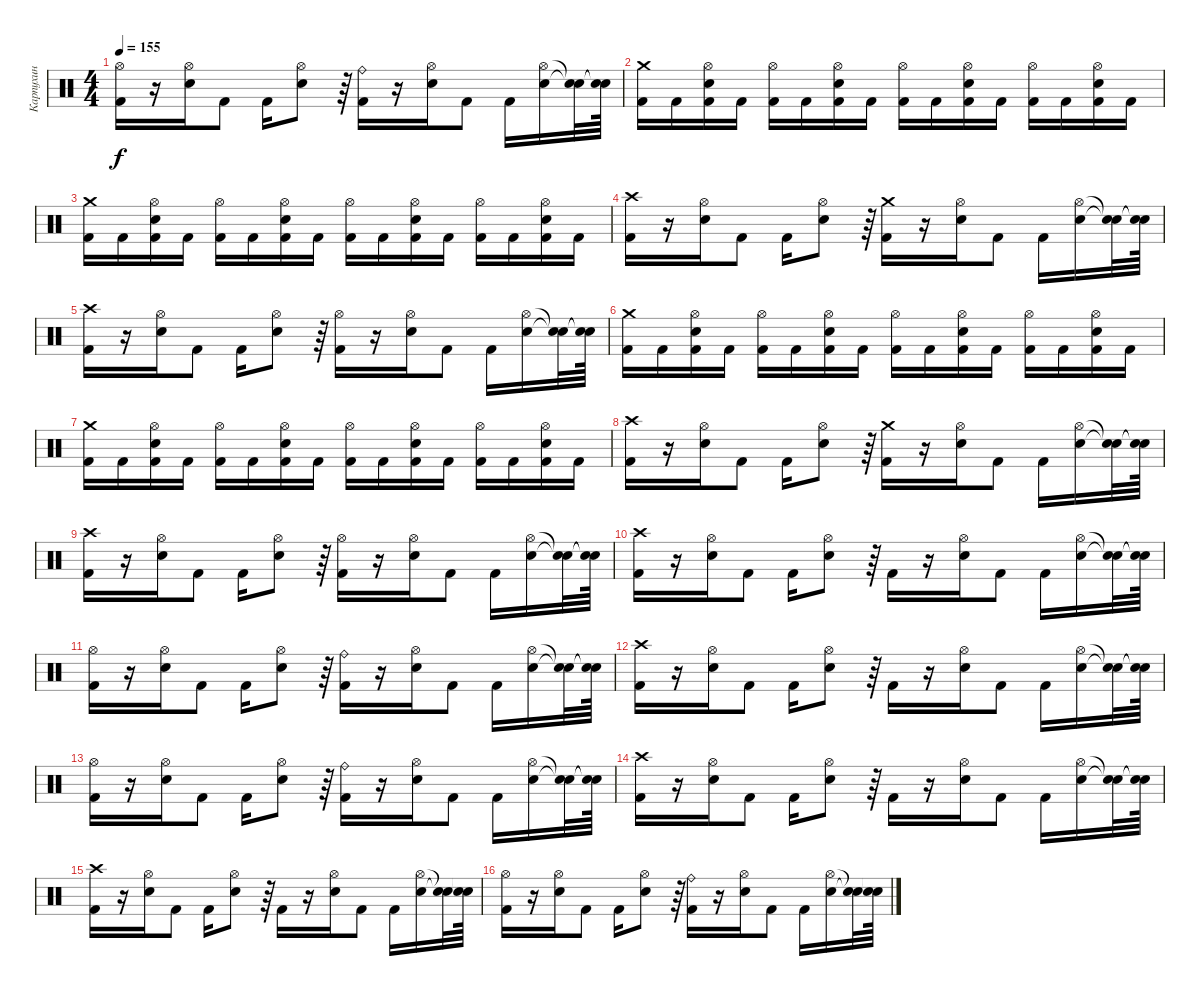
\track ("Карпухин" "Карпухин") {instrument percussion}
\staff {score}
\articulation defaults
\ts (4 4)
\tempo 155
\clef neutral
\ks c
("Kick (hit) 2" "Hi-Hat (open)").16{dy f} r.16 ("Electric Snare (hit)" "Hi-Hat (open)").16 "Kick (hit) 2".8 "Kick (hit) 2".16 ("Electric Snare (hit)" "Hi-Hat (open)").8 r.64 ("Ride (bell)" "Kick (hit) 2").16 r.16 ("Electric Snare (hit)" "Hi-Hat (open)").16 "Kick (hit) 2".8 "Kick (hit) 2".16 ("Electric Snare (hit)" "Hi-Hat (open)").16 ("Snare (hit)"{t} "Snare (hit)"{t}).32 ("Snare (hit)"{t} "Snare (hit)"{t}).64 |
("Kick (hit) 2" "Crash medium (hit)").16 "Kick (hit) 2".16 ("Kick (hit) 2" "Hi-Hat (open)" "Electric Snare (hit)").16 "Kick (hit) 2".16 ("Kick (hit) 2" "Hi-Hat (open)").16 "Kick (hit) 2".16 ("Kick (hit) 2" "Hi-Hat (open)" "Electric Snare (hit)").16 "Kick (hit) 2".16 ("Kick (hit) 2" "Hi-Hat (open)").16 "Kick (hit) 2".16 ("Kick (hit) 2" "Hi-Hat (open)" "Electric Snare (hit)").16 "Kick (hit) 2".16 ("Kick (hit) 2" "Hi-Hat (open)").16 "Kick (hit) 2".16 ("Kick (hit) 2" "Hi-Hat (open)" "Electric Snare (hit)").16 "Kick (hit) 2".16 |
("Kick (hit) 2" "Crash medium (hit)").16 "Kick (hit) 2".16 ("Kick (hit) 2" "Hi-Hat (open)" "Electric Snare (hit)").16 "Kick (hit) 2".16 ("Kick (hit) 2" "Hi-Hat (open)").16 "Kick (hit) 2".16 ("Kick (hit) 2" "Hi-Hat (open)" "Electric Snare (hit)").16 "Kick (hit) 2".16 ("Kick (hit) 2" "Hi-Hat (open)").16 "Kick (hit) 2".16 ("Kick (hit) 2" "Hi-Hat (open)" "Electric Snare (hit)").16 "Kick (hit) 2".16 ("Kick (hit) 2" "Hi-Hat (open)").16 "Kick (hit) 2".16 ("Kick (hit) 2" "Hi-Hat (open)" "Electric Snare (hit)").16 "Kick (hit) 2".16 |
("Kick (hit) 2" "Crash high (hit)").16 r.16 ("Electric Snare (hit)" "Hi-Hat (open)").16 "Kick (hit) 2".8 "Kick (hit) 2".16 ("Electric Snare (hit)" "Hi-Hat (open)").8 r.64 ("Crash medium (hit)" "Kick (hit) 2").16 r.16 ("Electric Snare (hit)" "Hi-Hat (open)").16 "Kick (hit) 2".8 "Kick (hit) 2".16 ("Electric Snare (hit)" "Hi-Hat (open)").16 ("Snare (hit)"{t} "Snare (hit)"{t}).32 ("Snare (hit)"{t} "Snare (hit)"{t}).64 |
("Kick (hit) 2" "Crash high (hit)").16 r.16 ("Electric Snare (hit)" "Hi-Hat (open)").16 "Kick (hit) 2".8 "Kick (hit) 2".16 ("Electric Snare (hit)" "Hi-Hat (open)").8 r.64 ("Hi-Hat (open)" "Kick (hit) 2").16 r.16 ("Electric Snare (hit)" "Hi-Hat (open)").16 "Kick (hit) 2".8 "Kick (hit) 2".16 ("Electric Snare (hit)" "Hi-Hat (open)").16 ("Snare (hit)"{t} "Snare (hit)"{t}).32 ("Snare (hit)"{t} "Snare (hit)"{t}).64 |
("Kick (hit) 2" "Crash medium (hit)").16 "Kick (hit) 2".16 ("Kick (hit) 2" "Hi-Hat (open)" "Electric Snare (hit)").16 "Kick (hit) 2".16 ("Kick (hit) 2" "Hi-Hat (open)").16 "Kick (hit) 2".16 ("Kick (hit) 2" "Hi-Hat (open)" "Electric Snare (hit)").16 "Kick (hit) 2".16 ("Kick (hit) 2" "Hi-Hat (open)").16 "Kick (hit) 2".16 ("Kick (hit) 2" "Hi-Hat (open)" "Electric Snare (hit)").16 "Kick (hit) 2".16 ("Kick (hit) 2" "Hi-Hat (open)").16 "Kick (hit) 2".16 ("Kick (hit) 2" "Hi-Hat (open)" "Electric Snare (hit)").16 "Kick (hit) 2".16 |
("Kick (hit) 2" "Crash medium (hit)").16 "Kick (hit) 2".16 ("Kick (hit) 2" "Hi-Hat (open)" "Electric Snare (hit)").16 "Kick (hit) 2".16 ("Kick (hit) 2" "Hi-Hat (open)").16 "Kick (hit) 2".16 ("Kick (hit) 2" "Hi-Hat (open)" "Electric Snare (hit)").16 "Kick (hit) 2".16 ("Kick (hit) 2" "Hi-Hat (open)").16 "Kick (hit) 2".16 ("Kick (hit) 2" "Hi-Hat (open)" "Electric Snare (hit)").16 "Kick (hit) 2".16 ("Kick (hit) 2" "Hi-Hat (open)").16 "Kick (hit) 2".16 ("Kick (hit) 2" "Hi-Hat (open)" "Electric Snare (hit)").16 "Kick (hit) 2".16 |
("Kick (hit) 2" "Crash high (hit)").16 r.16 ("Electric Snare (hit)" "Hi-Hat (open)").16 "Kick (hit) 2".8 "Kick (hit) 2".16 ("Electric Snare (hit)" "Hi-Hat (open)").8 r.64 ("Crash medium (hit)" "Kick (hit) 2").16 r.16 ("Electric Snare (hit)" "Hi-Hat (open)").16 "Kick (hit) 2".8 "Kick (hit) 2".16 ("Electric Snare (hit)" "Hi-Hat (open)").16 ("Snare (hit)"{t} "Snare (hit)"{t}).32 ("Snare (hit)"{t} "Snare (hit)"{t}).64 |
("Kick (hit) 2" "Crash high (hit)").16 r.16 ("Electric Snare (hit)" "Hi-Hat (open)").16 "Kick (hit) 2".8 "Kick (hit) 2".16 ("Electric Snare (hit)" "Hi-Hat (open)").8 r.64 ("Hi-Hat (open)" "Kick (hit) 2").16 r.16 ("Electric Snare (hit)" "Hi-Hat (open)").16 "Kick (hit) 2".8 "Kick (hit) 2".16 ("Electric Snare (hit)" "Hi-Hat (open)").16 ("Snare (hit)"{t} "Snare (hit)"{t}).32 ("Snare (hit)"{t} "Snare (hit)"{t}).64 |
("Kick (hit) 2" "Crash high (hit)").16 r.16 ("Electric Snare (hit)" "Hi-Hat (open)").16 "Kick (hit) 2".8 "Kick (hit) 2".16 ("Electric Snare (hit)" "Hi-Hat (open)").8 r.64 "Kick (hit) 2".16 r.16 ("Electric Snare (hit)" "Hi-Hat (open)").16 "Kick (hit) 2".8 "Kick (hit) 2".16 ("Electric Snare (hit)" "Hi-Hat (open)").16 ("Snare (hit)"{t} "Snare (hit)"{t}).32 ("Snare (hit)"{t} "Snare (hit)"{t}).64 |
("Kick (hit) 2" "Hi-Hat (open)").16 r.16 ("Electric Snare (hit)" "Hi-Hat (open)").16 "Kick (hit) 2".8 "Kick (hit) 2".16 ("Electric Snare (hit)" "Hi-Hat (open)").8 r.64 ("Ride (bell)" "Kick (hit) 2").16 r.16 ("Electric Snare (hit)" "Hi-Hat (open)").16 "Kick (hit) 2".8 "Kick (hit) 2".16 ("Electric Snare (hit)" "Hi-Hat (open)").16 ("Snare (hit)"{t} "Snare (hit)"{t}).32 ("Snare (hit)"{t} "Snare (hit)"{t}).64 |
("Kick (hit) 2" "Crash high (hit)").16 r.16 ("Electric Snare (hit)" "Hi-Hat (open)").16 "Kick (hit) 2".8 "Kick (hit) 2".16 ("Electric Snare (hit)" "Hi-Hat (open)").8 r.64 "Kick (hit) 2".16 r.16 ("Electric Snare (hit)" "Hi-Hat (open)").16 "Kick (hit) 2".8 "Kick (hit) 2".16 ("Electric Snare (hit)" "Hi-Hat (open)").16 ("Snare (hit)"{t} "Snare (hit)"{t}).32 ("Snare (hit)"{t} "Snare (hit)"{t}).64 |
("Kick (hit) 2" "Hi-Hat (open)").16 r.16 ("Electric Snare (hit)" "Hi-Hat (open)").16 "Kick (hit) 2".8 "Kick (hit) 2".16 ("Electric Snare (hit)" "Hi-Hat (open)").8 r.64 ("Ride (bell)" "Kick (hit) 2").16 r.16 ("Electric Snare (hit)" "Hi-Hat (open)").16 "Kick (hit) 2".8 "Kick (hit) 2".16 ("Electric Snare (hit)" "Hi-Hat (open)").16 ("Snare (hit)"{t} "Snare (hit)"{t}).32 ("Snare (hit)"{t} "Snare (hit)"{t}).64 |
("Kick (hit) 2" "Crash high (hit)").16 r.16 ("Electric Snare (hit)" "Hi-Hat (open)").16 "Kick (hit) 2".8 "Kick (hit) 2".16 ("Electric Snare (hit)" "Hi-Hat (open)").8 r.64 "Kick (hit) 2".16 r.16 ("Electric Snare (hit)" "Hi-Hat (open)").16 "Kick (hit) 2".8 "Kick (hit) 2".16 ("Electric Snare (hit)" "Hi-Hat (open)").16 ("Snare (hit)"{t} "Snare (hit)"{t}).32 ("Snare (hit)"{t} "Snare (hit)"{t}).64 |
("Kick (hit) 2" "Crash high (hit)").16 r.16 ("Electric Snare (hit)" "Hi-Hat (open)").16 "Kick (hit) 2".8 "Kick (hit) 2".16 ("Electric Snare (hit)" "Hi-Hat (open)").8 r.64 "Kick (hit) 2".16 r.16 ("Electric Snare (hit)" "Hi-Hat (open)").16 "Kick (hit) 2".8 "Kick (hit) 2".16 ("Electric Snare (hit)" "Hi-Hat (open)").16 ("Snare (hit)"{t} "Snare (hit)"{t}).32 ("Snare (hit)"{t} "Snare (hit)"{t}).64 |
("Kick (hit) 2" "Hi-Hat (open)").16 r.16 ("Electric Snare (hit)" "Hi-Hat (open)").16 "Kick (hit) 2".8 "Kick (hit) 2".16 ("Electric Snare (hit)" "Hi-Hat (open)").8 r.64 ("Ride (bell)" "Kick (hit) 2").16 r.16 ("Electric Snare (hit)" "Hi-Hat (open)").16 "Kick (hit) 2".8 "Kick (hit) 2".16 ("Electric Snare (hit)" "Hi-Hat (open)").16 ("Snare (hit)"{t} "Snare (hit)"{t}).32 ("Snare (hit)"{t} "Snare (hit)"{t}).64
